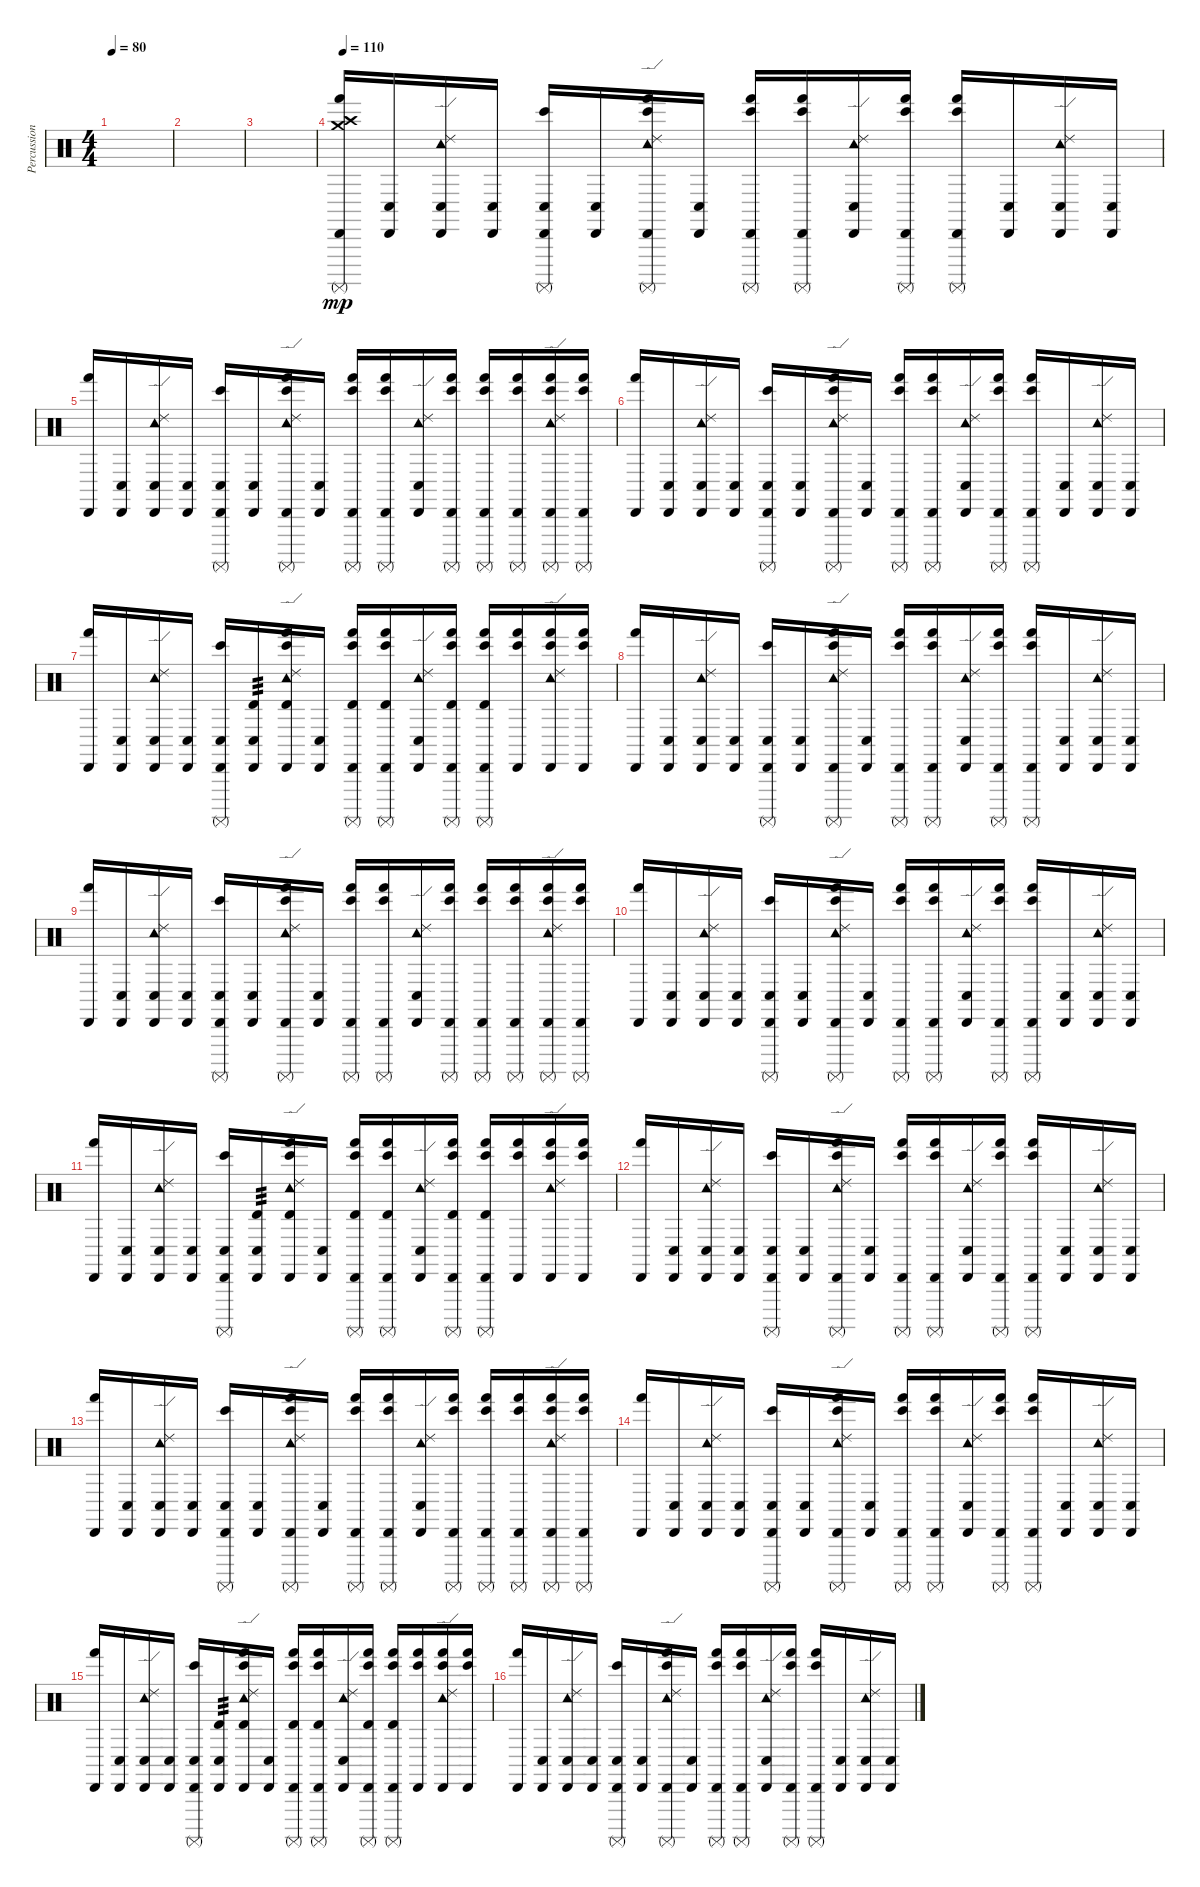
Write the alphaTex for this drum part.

\track ("Percussion" "Percussion") {instrument percussion}
\staff {score}
\articulation defaults
\ts (4 4)
\tempo 80
\clef neutral
\ks c
|
|
|
\tempo 110
("Crash high (hit)" "Crash medium (hit)" "Cabasa (hit)" "Surdo (mute)" "Hand (hit)").16{dy mp balance 8} ("Cabasa (hit)" "Conga low (hit)").16 ("Tambourine (hit)" "Ride (edge) 2" "Cabasa (hit)" "Conga low (hit)").16 ("Cabasa (hit)" "Conga low (hit)").16 ("Cabasa (hit)" "Surdo (mute)" "Bongo High (hit)" "Conga low (hit)").16 ("Cabasa (hit)" "Conga low (hit)").16 ("Tambourine (hit)" "Ride (edge) 2" "Cabasa (hit)" "Surdo (mute)" "Bongo High (hit)" "Hand (hit)").16 ("Cabasa (hit)" "Conga low (hit)").16 ("Cabasa (hit)" "Surdo (mute)" "Bongo High (hit)" "Hand (hit)").16 ("Cabasa (hit)" "Surdo (mute)" "Bongo High (hit)" "Hand (hit)").16 ("Tambourine (hit)" "Ride (edge) 2" "Cabasa (hit)" "Conga low (hit)").16 ("Cabasa (hit)" "Surdo (mute)" "Bongo High (hit)" "Hand (hit)").16 ("Cabasa (hit)" "Surdo (mute)" "Bongo High (hit)" "Hand (hit)").16 ("Cabasa (hit)" "Conga low (hit)").16 ("Tambourine (hit)" "Ride (edge) 2" "Cabasa (hit)" "Conga low (hit)").16 ("Cabasa (hit)" "Conga low (hit)").16 |
("Cabasa (hit)" "Hand (hit)").16 ("Cabasa (hit)" "Conga low (hit)").16 ("Tambourine (hit)" "Ride (edge) 2" "Cabasa (hit)" "Conga low (hit)").16 ("Cabasa (hit)" "Conga low (hit)").16 ("Cabasa (hit)" "Surdo (mute)" "Bongo High (hit)" "Conga low (hit)").16 ("Cabasa (hit)" "Conga low (hit)").16 ("Tambourine (hit)" "Ride (edge) 2" "Cabasa (hit)" "Surdo (mute)" "Bongo High (hit)" "Hand (hit)").16 ("Cabasa (hit)" "Conga low (hit)").16 ("Cabasa (hit)" "Surdo (mute)" "Bongo High (hit)" "Hand (hit)").16 ("Cabasa (hit)" "Surdo (mute)" "Bongo High (hit)" "Hand (hit)").16 ("Tambourine (hit)" "Ride (edge) 2" "Cabasa (hit)" "Conga low (hit)").16 ("Cabasa (hit)" "Surdo (mute)" "Bongo High (hit)" "Hand (hit)").16 ("Cabasa (hit)" "Surdo (mute)" "Bongo High (hit)" "Hand (hit)").16 ("Cabasa (hit)" "Surdo (mute)" "Bongo High (hit)" "Hand (hit)").16 ("Tambourine (hit)" "Ride (edge) 2" "Cabasa (hit)" "Surdo (mute)" "Bongo High (hit)" "Hand (hit)").16 ("Cabasa (hit)" "Surdo (mute)" "Bongo High (hit)" "Hand (hit)").16 |
("Cabasa (hit)" "Hand (hit)").16 ("Cabasa (hit)" "Conga low (hit)").16 ("Tambourine (hit)" "Ride (edge) 2" "Cabasa (hit)" "Conga low (hit)").16 ("Cabasa (hit)" "Conga low (hit)").16 ("Cabasa (hit)" "Surdo (mute)" "Bongo High (hit)" "Conga low (hit)").16 ("Cabasa (hit)" "Conga low (hit)").16 ("Tambourine (hit)" "Ride (edge) 2" "Cabasa (hit)" "Surdo (mute)" "Bongo High (hit)" "Hand (hit)").16 ("Cabasa (hit)" "Conga low (hit)").16 ("Cabasa (hit)" "Surdo (mute)" "Bongo High (hit)" "Hand (hit)").16 ("Cabasa (hit)" "Surdo (mute)" "Bongo High (hit)" "Hand (hit)").16 ("Tambourine (hit)" "Ride (edge) 2" "Cabasa (hit)" "Conga low (hit)").16 ("Cabasa (hit)" "Surdo (mute)" "Bongo High (hit)" "Hand (hit)").16 ("Cabasa (hit)" "Surdo (mute)" "Bongo High (hit)" "Hand (hit)").16 ("Cabasa (hit)" "Conga low (hit)").16 ("Tambourine (hit)" "Ride (edge) 2" "Cabasa (hit)" "Conga low (hit)").16 ("Cabasa (hit)" "Conga low (hit)").16 |
("Cabasa (hit)" "Hand (hit)").16 ("Cabasa (hit)" "Conga low (hit)").16 ("Tambourine (hit)" "Ride (edge) 2" "Cabasa (hit)" "Conga low (hit)").16 ("Cabasa (hit)" "Conga low (hit)").16 ("Cabasa (hit)" "Surdo (mute)" "Bongo High (hit)" "Conga low (hit)").16 ("Cabasa (hit)" "Timbale high (hit)" "Conga low (hit)").16{tp 3} ("Tambourine (hit)" "Ride (edge) 2" "Cabasa (hit)" "Timbale high (hit)" "Bongo High (hit)" "Hand (hit)").16 ("Cabasa (hit)" "Conga low (hit)").16 ("Surdo (mute)" "Cabasa (hit)" "Timbale high (hit)" "Bongo High (hit)" "Hand (hit)").16 ("Surdo (mute)" "Cabasa (hit)" "Timbale high (hit)" "Bongo High (hit)" "Hand (hit)").16 ("Tambourine (hit)" "Ride (edge) 2" "Cabasa (hit)" "Conga low (hit)").16 ("Surdo (mute)" "Cabasa (hit)" "Timbale high (hit)" "Bongo High (hit)" "Hand (hit)").16 ("Surdo (mute)" "Cabasa (hit)" "Timbale high (hit)" "Bongo High (hit)" "Hand (hit)").16 ("Cabasa (hit)" "Bongo High (hit)" "Hand (hit)").16 ("Tambourine (hit)" "Ride (edge) 2" "Cabasa (hit)" "Bongo High (hit)" "Hand (hit)").16 ("Cabasa (hit)" "Bongo High (hit)" "Hand (hit)").16 |
("Cabasa (hit)" "Hand (hit)").16 ("Cabasa (hit)" "Conga low (hit)").16 ("Tambourine (hit)" "Ride (edge) 2" "Cabasa (hit)" "Conga low (hit)").16 ("Cabasa (hit)" "Conga low (hit)").16 ("Cabasa (hit)" "Surdo (mute)" "Bongo High (hit)" "Conga low (hit)").16 ("Cabasa (hit)" "Conga low (hit)").16 ("Tambourine (hit)" "Ride (edge) 2" "Cabasa (hit)" "Surdo (mute)" "Bongo High (hit)" "Hand (hit)").16 ("Cabasa (hit)" "Conga low (hit)").16 ("Cabasa (hit)" "Surdo (mute)" "Bongo High (hit)" "Hand (hit)").16 ("Cabasa (hit)" "Surdo (mute)" "Bongo High (hit)" "Hand (hit)").16 ("Tambourine (hit)" "Ride (edge) 2" "Cabasa (hit)" "Conga low (hit)").16 ("Cabasa (hit)" "Surdo (mute)" "Bongo High (hit)" "Hand (hit)").16 ("Cabasa (hit)" "Surdo (mute)" "Bongo High (hit)" "Hand (hit)").16 ("Cabasa (hit)" "Conga low (hit)").16 ("Tambourine (hit)" "Ride (edge) 2" "Cabasa (hit)" "Conga low (hit)").16 ("Cabasa (hit)" "Conga low (hit)").16 |
("Cabasa (hit)" "Hand (hit)").16 ("Cabasa (hit)" "Conga low (hit)").16 ("Tambourine (hit)" "Ride (edge) 2" "Cabasa (hit)" "Conga low (hit)").16 ("Cabasa (hit)" "Conga low (hit)").16 ("Cabasa (hit)" "Surdo (mute)" "Bongo High (hit)" "Conga low (hit)").16 ("Cabasa (hit)" "Conga low (hit)").16 ("Tambourine (hit)" "Ride (edge) 2" "Cabasa (hit)" "Surdo (mute)" "Bongo High (hit)" "Hand (hit)").16 ("Cabasa (hit)" "Conga low (hit)").16 ("Cabasa (hit)" "Surdo (mute)" "Bongo High (hit)" "Hand (hit)").16 ("Cabasa (hit)" "Surdo (mute)" "Bongo High (hit)" "Hand (hit)").16 ("Tambourine (hit)" "Ride (edge) 2" "Cabasa (hit)" "Conga low (hit)").16 ("Cabasa (hit)" "Surdo (mute)" "Bongo High (hit)" "Hand (hit)").16 ("Cabasa (hit)" "Surdo (mute)" "Bongo High (hit)" "Hand (hit)").16 ("Cabasa (hit)" "Surdo (mute)" "Bongo High (hit)" "Hand (hit)").16 ("Tambourine (hit)" "Ride (edge) 2" "Cabasa (hit)" "Surdo (mute)" "Bongo High (hit)" "Hand (hit)").16 ("Cabasa (hit)" "Surdo (mute)" "Bongo High (hit)" "Hand (hit)").16 |
("Cabasa (hit)" "Hand (hit)").16 ("Cabasa (hit)" "Conga low (hit)").16 ("Tambourine (hit)" "Ride (edge) 2" "Cabasa (hit)" "Conga low (hit)").16 ("Cabasa (hit)" "Conga low (hit)").16 ("Cabasa (hit)" "Surdo (mute)" "Bongo High (hit)" "Conga low (hit)").16 ("Cabasa (hit)" "Conga low (hit)").16 ("Tambourine (hit)" "Ride (edge) 2" "Cabasa (hit)" "Surdo (mute)" "Bongo High (hit)" "Hand (hit)").16 ("Cabasa (hit)" "Conga low (hit)").16 ("Cabasa (hit)" "Surdo (mute)" "Bongo High (hit)" "Hand (hit)").16 ("Cabasa (hit)" "Surdo (mute)" "Bongo High (hit)" "Hand (hit)").16 ("Tambourine (hit)" "Ride (edge) 2" "Cabasa (hit)" "Conga low (hit)").16 ("Cabasa (hit)" "Surdo (mute)" "Bongo High (hit)" "Hand (hit)").16 ("Cabasa (hit)" "Surdo (mute)" "Bongo High (hit)" "Hand (hit)").16 ("Cabasa (hit)" "Conga low (hit)").16 ("Tambourine (hit)" "Ride (edge) 2" "Cabasa (hit)" "Conga low (hit)").16 ("Cabasa (hit)" "Conga low (hit)").16 |
("Cabasa (hit)" "Hand (hit)").16 ("Cabasa (hit)" "Conga low (hit)").16 ("Tambourine (hit)" "Ride (edge) 2" "Cabasa (hit)" "Conga low (hit)").16 ("Cabasa (hit)" "Conga low (hit)").16 ("Cabasa (hit)" "Surdo (mute)" "Bongo High (hit)" "Conga low (hit)").16 ("Cabasa (hit)" "Timbale high (hit)" "Conga low (hit)").16{tp 3} ("Tambourine (hit)" "Ride (edge) 2" "Cabasa (hit)" "Timbale high (hit)" "Bongo High (hit)" "Hand (hit)").16 ("Cabasa (hit)" "Conga low (hit)").16 ("Surdo (mute)" "Cabasa (hit)" "Timbale high (hit)" "Bongo High (hit)" "Hand (hit)").16 ("Surdo (mute)" "Cabasa (hit)" "Timbale high (hit)" "Bongo High (hit)" "Hand (hit)").16 ("Tambourine (hit)" "Ride (edge) 2" "Cabasa (hit)" "Conga low (hit)").16 ("Surdo (mute)" "Cabasa (hit)" "Timbale high (hit)" "Bongo High (hit)" "Hand (hit)").16 ("Surdo (mute)" "Cabasa (hit)" "Timbale high (hit)" "Bongo High (hit)" "Hand (hit)").16 ("Cabasa (hit)" "Bongo High (hit)" "Hand (hit)").16 ("Tambourine (hit)" "Ride (edge) 2" "Cabasa (hit)" "Bongo High (hit)" "Hand (hit)").16 ("Cabasa (hit)" "Bongo High (hit)" "Hand (hit)").16 |
("Cabasa (hit)" "Hand (hit)").16 ("Cabasa (hit)" "Conga low (hit)").16 ("Tambourine (hit)" "Ride (edge) 2" "Cabasa (hit)" "Conga low (hit)").16 ("Cabasa (hit)" "Conga low (hit)").16 ("Cabasa (hit)" "Surdo (mute)" "Bongo High (hit)" "Conga low (hit)").16 ("Cabasa (hit)" "Conga low (hit)").16 ("Tambourine (hit)" "Ride (edge) 2" "Cabasa (hit)" "Surdo (mute)" "Bongo High (hit)" "Hand (hit)").16 ("Cabasa (hit)" "Conga low (hit)").16 ("Cabasa (hit)" "Surdo (mute)" "Bongo High (hit)" "Hand (hit)").16 ("Cabasa (hit)" "Surdo (mute)" "Bongo High (hit)" "Hand (hit)").16 ("Tambourine (hit)" "Ride (edge) 2" "Cabasa (hit)" "Conga low (hit)").16 ("Cabasa (hit)" "Surdo (mute)" "Bongo High (hit)" "Hand (hit)").16 ("Cabasa (hit)" "Surdo (mute)" "Bongo High (hit)" "Hand (hit)").16 ("Cabasa (hit)" "Conga low (hit)").16 ("Tambourine (hit)" "Ride (edge) 2" "Cabasa (hit)" "Conga low (hit)").16 ("Cabasa (hit)" "Conga low (hit)").16 |
("Cabasa (hit)" "Hand (hit)").16 ("Cabasa (hit)" "Conga low (hit)").16 ("Tambourine (hit)" "Ride (edge) 2" "Cabasa (hit)" "Conga low (hit)").16 ("Cabasa (hit)" "Conga low (hit)").16 ("Cabasa (hit)" "Surdo (mute)" "Bongo High (hit)" "Conga low (hit)").16 ("Cabasa (hit)" "Conga low (hit)").16 ("Tambourine (hit)" "Ride (edge) 2" "Cabasa (hit)" "Surdo (mute)" "Bongo High (hit)" "Hand (hit)").16 ("Cabasa (hit)" "Conga low (hit)").16 ("Cabasa (hit)" "Surdo (mute)" "Bongo High (hit)" "Hand (hit)").16 ("Cabasa (hit)" "Surdo (mute)" "Bongo High (hit)" "Hand (hit)").16 ("Tambourine (hit)" "Ride (edge) 2" "Cabasa (hit)" "Conga low (hit)").16 ("Cabasa (hit)" "Surdo (mute)" "Bongo High (hit)" "Hand (hit)").16 ("Cabasa (hit)" "Surdo (mute)" "Bongo High (hit)" "Hand (hit)").16 ("Cabasa (hit)" "Surdo (mute)" "Bongo High (hit)" "Hand (hit)").16 ("Tambourine (hit)" "Ride (edge) 2" "Cabasa (hit)" "Surdo (mute)" "Bongo High (hit)" "Hand (hit)").16 ("Cabasa (hit)" "Surdo (mute)" "Bongo High (hit)" "Hand (hit)").16 |
("Cabasa (hit)" "Hand (hit)").16 ("Cabasa (hit)" "Conga low (hit)").16 ("Tambourine (hit)" "Ride (edge) 2" "Cabasa (hit)" "Conga low (hit)").16 ("Cabasa (hit)" "Conga low (hit)").16 ("Cabasa (hit)" "Surdo (mute)" "Bongo High (hit)" "Conga low (hit)").16 ("Cabasa (hit)" "Conga low (hit)").16 ("Tambourine (hit)" "Ride (edge) 2" "Cabasa (hit)" "Surdo (mute)" "Bongo High (hit)" "Hand (hit)").16 ("Cabasa (hit)" "Conga low (hit)").16 ("Cabasa (hit)" "Surdo (mute)" "Bongo High (hit)" "Hand (hit)").16 ("Cabasa (hit)" "Surdo (mute)" "Bongo High (hit)" "Hand (hit)").16 ("Tambourine (hit)" "Ride (edge) 2" "Cabasa (hit)" "Conga low (hit)").16 ("Cabasa (hit)" "Surdo (mute)" "Bongo High (hit)" "Hand (hit)").16 ("Cabasa (hit)" "Surdo (mute)" "Bongo High (hit)" "Hand (hit)").16 ("Cabasa (hit)" "Conga low (hit)").16 ("Tambourine (hit)" "Ride (edge) 2" "Cabasa (hit)" "Conga low (hit)").16 ("Cabasa (hit)" "Conga low (hit)").16 |
("Cabasa (hit)" "Hand (hit)").16 ("Cabasa (hit)" "Conga low (hit)").16 ("Tambourine (hit)" "Ride (edge) 2" "Cabasa (hit)" "Conga low (hit)").16 ("Cabasa (hit)" "Conga low (hit)").16 ("Cabasa (hit)" "Surdo (mute)" "Bongo High (hit)" "Conga low (hit)").16 ("Cabasa (hit)" "Timbale high (hit)" "Conga low (hit)").16{tp 3} ("Tambourine (hit)" "Ride (edge) 2" "Cabasa (hit)" "Timbale high (hit)" "Bongo High (hit)" "Hand (hit)").16 ("Cabasa (hit)" "Conga low (hit)").16 ("Surdo (mute)" "Cabasa (hit)" "Timbale high (hit)" "Bongo High (hit)" "Hand (hit)").16 ("Surdo (mute)" "Cabasa (hit)" "Timbale high (hit)" "Bongo High (hit)" "Hand (hit)").16 ("Tambourine (hit)" "Ride (edge) 2" "Cabasa (hit)" "Conga low (hit)").16 ("Surdo (mute)" "Cabasa (hit)" "Timbale high (hit)" "Bongo High (hit)" "Hand (hit)").16 ("Surdo (mute)" "Cabasa (hit)" "Timbale high (hit)" "Bongo High (hit)" "Hand (hit)").16 ("Cabasa (hit)" "Bongo High (hit)" "Hand (hit)").16 ("Tambourine (hit)" "Ride (edge) 2" "Cabasa (hit)" "Bongo High (hit)" "Hand (hit)").16 ("Cabasa (hit)" "Bongo High (hit)" "Hand (hit)").16 |
("Cabasa (hit)" "Hand (hit)").16 ("Cabasa (hit)" "Conga low (hit)").16 ("Tambourine (hit)" "Ride (edge) 2" "Cabasa (hit)" "Conga low (hit)").16 ("Cabasa (hit)" "Conga low (hit)").16 ("Cabasa (hit)" "Surdo (mute)" "Bongo High (hit)" "Conga low (hit)").16 ("Cabasa (hit)" "Conga low (hit)").16 ("Tambourine (hit)" "Ride (edge) 2" "Cabasa (hit)" "Surdo (mute)" "Bongo High (hit)" "Hand (hit)").16 ("Cabasa (hit)" "Conga low (hit)").16 ("Cabasa (hit)" "Surdo (mute)" "Bongo High (hit)" "Hand (hit)").16 ("Cabasa (hit)" "Surdo (mute)" "Bongo High (hit)" "Hand (hit)").16 ("Tambourine (hit)" "Ride (edge) 2" "Cabasa (hit)" "Conga low (hit)").16 ("Cabasa (hit)" "Surdo (mute)" "Bongo High (hit)" "Hand (hit)").16 ("Cabasa (hit)" "Surdo (mute)" "Bongo High (hit)" "Hand (hit)").16 ("Cabasa (hit)" "Conga low (hit)").16 ("Tambourine (hit)" "Ride (edge) 2" "Cabasa (hit)" "Conga low (hit)").16 ("Cabasa (hit)" "Conga low (hit)").16
